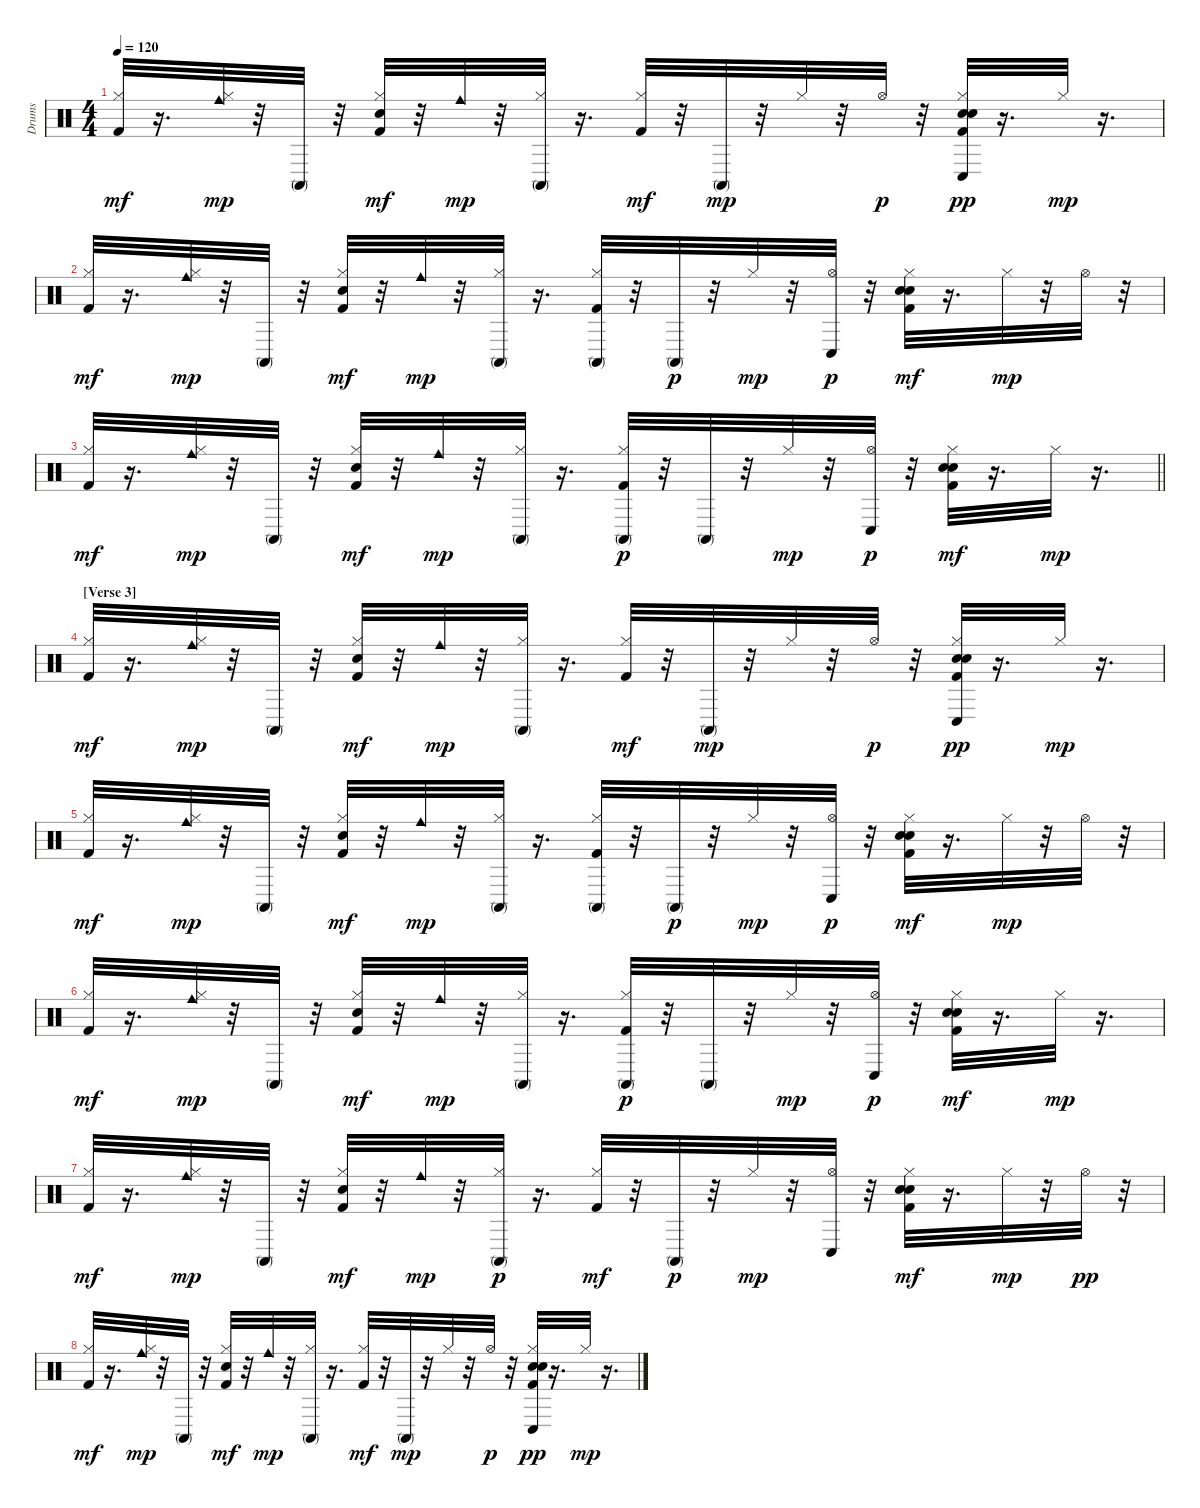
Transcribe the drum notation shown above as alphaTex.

\track ("Drums" "Drums") {instrument percussion}
\staff {score}
\articulation defaults
\ts (4 4)
\tempo 120
\clef neutral
\ks c
("Hi-Hat (closed)" "Kick (hit) 2").32{dy mf} r.16{d} ("Hi-Hat (closed)" "Cowbell medium (hit)").32{dy mp} r.32 "Conga high (mute)".32 r.32 ("Hi-Hat (closed)" "Electric Snare (hit)" "Kick (hit) 2").32{dy mf} r.32 "Cowbell medium (hit)".32{dy mp} r.32 ("Hi-Hat (closed)" "Conga high (mute)").32 r.16{d} ("Hi-Hat (closed)" "Kick (hit) 2").32{dy mf} r.32 "Conga high (mute)".32{dy mp} r.32 "Hi-Hat (closed)".32 r.32 "Hi-Hat (open)".32{dy p} r.32 ("Hi-Hat (closed)" "Kick (hit) 2" "Hand Clap (hit)" "Electric Snare (hit)" "Conga low (hit)").32{dy pp} r.16{d} "Hi-Hat (closed)".32{dy mp} r.16{d} |
("Hi-Hat (closed)" "Kick (hit) 2").32{dy mf} r.16{d} ("Hi-Hat (closed)" "Cowbell medium (hit)").32{dy mp} r.32 "Conga high (mute)".32 r.32 ("Hi-Hat (closed)" "Electric Snare (hit)" "Kick (hit) 2").32{dy mf} r.32 "Cowbell medium (hit)".32{dy mp} r.32 ("Hi-Hat (closed)" "Conga high (mute)").32 r.16{d} ("Hi-Hat (closed)" "Kick (hit) 2" "Conga high (mute)").32 r.32 "Conga high (mute)".32{dy p} r.32 "Hi-Hat (closed)".32{dy mp} r.32 ("Hi-Hat (open)" "Conga low (hit)").32{dy p} r.32 ("Kick (hit) 2" "Hi-Hat (closed)" "Electric Snare (hit)" "Hand Clap (hit)").32{dy mf} r.16{d} "Hi-Hat (closed)".32{dy mp} r.32 "Hi-Hat (open)".32 r.32 |
\barLineRight lightlight
("Hi-Hat (closed)" "Kick (hit) 2").32{dy mf} r.16{d} ("Hi-Hat (closed)" "Cowbell medium (hit)").32{dy mp} r.32 "Conga high (mute)".32 r.32 ("Hi-Hat (closed)" "Electric Snare (hit)" "Kick (hit) 2").32{dy mf} r.32 "Cowbell medium (hit)".32{dy mp} r.32 ("Hi-Hat (closed)" "Conga high (mute)").32 r.16{d} ("Kick (hit) 2" "Hi-Hat (closed)" "Conga high (mute)").32{dy p} r.32 "Conga high (mute)".32 r.32 "Hi-Hat (closed)".32{dy mp} r.32 ("Hi-Hat (open)" "Conga low (hit)").32{dy p} r.32 ("Hi-Hat (closed)" "Hand Clap (hit)" "Electric Snare (hit)" "Kick (hit) 2").32{dy mf} r.16{d} "Hi-Hat (closed)".32{dy mp} r.16{d} |
\section ("" "[Verse 3]")
("Hi-Hat (closed)" "Kick (hit) 2").32{dy mf} r.16{d} ("Hi-Hat (closed)" "Cowbell medium (hit)").32{dy mp} r.32 "Conga high (mute)".32 r.32 ("Hi-Hat (closed)" "Electric Snare (hit)" "Kick (hit) 2").32{dy mf} r.32 "Cowbell medium (hit)".32{dy mp} r.32 ("Hi-Hat (closed)" "Conga high (mute)").32 r.16{d} ("Hi-Hat (closed)" "Kick (hit) 2").32{dy mf} r.32 "Conga high (mute)".32{dy mp} r.32 "Hi-Hat (closed)".32 r.32 "Hi-Hat (open)".32{dy p} r.32 ("Hi-Hat (closed)" "Kick (hit) 2" "Hand Clap (hit)" "Electric Snare (hit)" "Conga low (hit)").32{dy pp} r.16{d} "Hi-Hat (closed)".32{dy mp} r.16{d} |
("Hi-Hat (closed)" "Kick (hit) 2").32{dy mf} r.16{d} ("Hi-Hat (closed)" "Cowbell medium (hit)").32{dy mp} r.32 "Conga high (mute)".32 r.32 ("Hi-Hat (closed)" "Electric Snare (hit)" "Kick (hit) 2").32{dy mf} r.32 "Cowbell medium (hit)".32{dy mp} r.32 ("Hi-Hat (closed)" "Conga high (mute)").32 r.16{d} ("Hi-Hat (closed)" "Kick (hit) 2" "Conga high (mute)").32 r.32 "Conga high (mute)".32{dy p} r.32 "Hi-Hat (closed)".32{dy mp} r.32 ("Hi-Hat (open)" "Conga low (hit)").32{dy p} r.32 ("Kick (hit) 2" "Hi-Hat (closed)" "Electric Snare (hit)" "Hand Clap (hit)").32{dy mf} r.16{d} "Hi-Hat (closed)".32{dy mp} r.32 "Hi-Hat (open)".32 r.32 |
("Hi-Hat (closed)" "Kick (hit) 2").32{dy mf} r.16{d} ("Hi-Hat (closed)" "Cowbell medium (hit)").32{dy mp} r.32 "Conga high (mute)".32 r.32 ("Hi-Hat (closed)" "Electric Snare (hit)" "Kick (hit) 2").32{dy mf} r.32 "Cowbell medium (hit)".32{dy mp} r.32 ("Hi-Hat (closed)" "Conga high (mute)").32 r.16{d} ("Kick (hit) 2" "Hi-Hat (closed)" "Conga high (mute)").32{dy p} r.32 "Conga high (mute)".32 r.32 "Hi-Hat (closed)".32{dy mp} r.32 ("Hi-Hat (open)" "Conga low (hit)").32{dy p} r.32 ("Hi-Hat (closed)" "Hand Clap (hit)" "Electric Snare (hit)" "Kick (hit) 2").32{dy mf} r.16{d} "Hi-Hat (closed)".32{dy mp} r.16{d} |
("Hi-Hat (closed)" "Kick (hit) 2").32{dy mf} r.16{d} ("Hi-Hat (closed)" "Cowbell medium (hit)").32{dy mp} r.32 "Conga high (mute)".32 r.32 ("Hi-Hat (closed)" "Electric Snare (hit)" "Kick (hit) 2").32{dy mf} r.32 "Cowbell medium (hit)".32{dy mp} r.32 ("Hi-Hat (closed)" "Conga high (mute)").32{dy p} r.16{d} ("Hi-Hat (closed)" "Kick (hit) 2").32{dy mf} r.32 "Conga high (mute)".32{dy p} r.32 "Hi-Hat (closed)".32{dy mp} r.32 ("Hi-Hat (open)" "Conga low (hit)").32 r.32 ("Kick (hit) 2" "Hi-Hat (closed)" "Electric Snare (hit)" "Hand Clap (hit)").32{dy mf} r.16{d} "Hi-Hat (closed)".32{dy mp} r.32 "Hi-Hat (open)".32{dy pp} r.32 |
("Hi-Hat (closed)" "Kick (hit) 2").32{dy mf} r.16{d} ("Hi-Hat (closed)" "Cowbell medium (hit)").32{dy mp} r.32 "Conga high (mute)".32 r.32 ("Hi-Hat (closed)" "Electric Snare (hit)" "Kick (hit) 2").32{dy mf} r.32 "Cowbell medium (hit)".32{dy mp} r.32 ("Hi-Hat (closed)" "Conga high (mute)").32 r.16{d} ("Hi-Hat (closed)" "Kick (hit) 2").32{dy mf} r.32 "Conga high (mute)".32{dy mp} r.32 "Hi-Hat (closed)".32 r.32 "Hi-Hat (open)".32{dy p} r.32 ("Hi-Hat (closed)" "Kick (hit) 2" "Hand Clap (hit)" "Electric Snare (hit)" "Conga low (hit)").32{dy pp} r.16{d} "Hi-Hat (closed)".32{dy mp} r.16{d}
